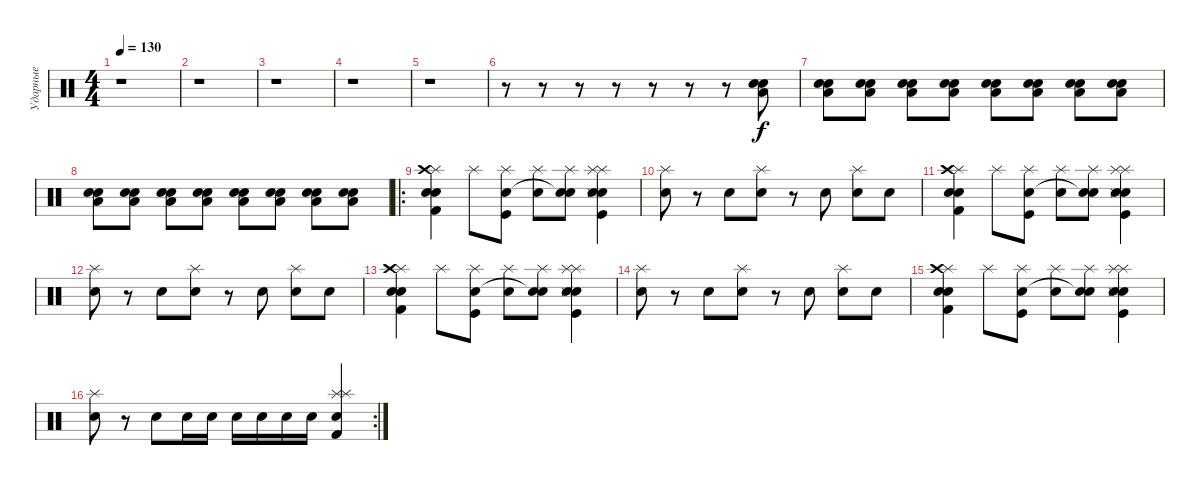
\track ("Ударные" "Ударные") {instrument percussion}
\staff {score}
\articulation defaults
\ts (4 4)
\tempo 130
\clef neutral
\ks c
r.1{dy f} |
r.1 |
r.1 |
r.1 |
r.1 |
r.8 r.8 r.8 r.8 r.8 r.8 r.8 ("Low Tom (hit)" "Electric Snare (hit)" "Snare (hit) 2").8{volume 8} |
("Low Tom (hit)" "Electric Snare (hit)" "Snare (hit) 2").8 ("Low Tom (hit)" "Electric Snare (hit)" "Snare (hit) 2").8 ("Low Tom (hit)" "Electric Snare (hit)" "Snare (hit) 2").8 ("Low Tom (hit)" "Electric Snare (hit)" "Snare (hit) 2").8 ("Low Tom (hit)" "Electric Snare (hit)" "Snare (hit) 2").8{volume 11} ("Low Tom (hit)" "Electric Snare (hit)" "Snare (hit) 2").8 ("Low Tom (hit)" "Electric Snare (hit)" "Snare (hit) 2").8 ("Low Tom (hit)" "Electric Snare (hit)" "Snare (hit) 2").8 |
("Low Tom (hit)" "Electric Snare (hit)" "Snare (hit) 2").8{volume 13} ("Low Tom (hit)" "Electric Snare (hit)" "Snare (hit) 2").8 ("Low Tom (hit)" "Electric Snare (hit)" "Snare (hit) 2").8 ("Low Tom (hit)" "Electric Snare (hit)" "Snare (hit) 2").8 ("Low Tom (hit)" "Electric Snare (hit)" "Snare (hit) 2").8 ("Low Tom (hit)" "Electric Snare (hit)" "Snare (hit) 2").8 ("Low Tom (hit)" "Electric Snare (hit)" "Snare (hit) 2").8 ("Low Tom (hit)" "Electric Snare (hit)" "Snare (hit) 2").8 |
\ro
("Electric Snare (hit)" "Splash (hit)" "Kick (hit) 2" "Snare (hit) 2" "Crash high (hit)").4{volume 8} "Splash (hit)".8 ("Kick (hit)" "Splash (hit)" "Electric Snare (hit)").8 ("Splash (hit)" "Electric Snare (hit)").8 ("Splash (hit)" "Electric Snare (hit)" "Snare (hit)"{t}).8 ("Kick (hit)" "Splash (hit)" "Electric Snare (hit)" "Metronome (bell)" "Snare (side stick) 3" "Splash (hit)").4 |
("Splash (hit)" "Electric Snare (hit)").8 r.8 "Electric Snare (hit)".8 ("Splash (hit)" "Electric Snare (hit)").8 r.8 "Electric Snare (hit)".8 ("Splash (hit)" "Electric Snare (hit)").8 "Electric Snare (hit)".8 |
("Electric Snare (hit)" "Splash (hit)" "Kick (hit) 2" "Snare (hit) 2" "Crash high (hit)").4 "Splash (hit)".8 ("Kick (hit)" "Splash (hit)" "Electric Snare (hit)").8 ("Splash (hit)" "Electric Snare (hit)").8 ("Splash (hit)" "Electric Snare (hit)" "Snare (hit)"{t}).8 ("Kick (hit)" "Splash (hit)" "Electric Snare (hit)" "Metronome (bell)" "Snare (side stick) 3" "Splash (hit)").4 |
("Splash (hit)" "Electric Snare (hit)").8 r.8 "Electric Snare (hit)".8 ("Splash (hit)" "Electric Snare (hit)").8 r.8 "Electric Snare (hit)".8 ("Splash (hit)" "Electric Snare (hit)").8 "Electric Snare (hit)".8 |
("Electric Snare (hit)" "Splash (hit)" "Kick (hit) 2" "Snare (hit) 2" "Crash high (hit)").4 "Splash (hit)".8 ("Kick (hit)" "Splash (hit)" "Electric Snare (hit)").8 ("Splash (hit)" "Electric Snare (hit)").8 ("Splash (hit)" "Electric Snare (hit)" "Snare (hit)"{t}).8 ("Kick (hit)" "Splash (hit)" "Electric Snare (hit)" "Metronome (bell)" "Snare (side stick) 3" "Splash (hit)").4 |
("Splash (hit)" "Electric Snare (hit)").8 r.8 "Electric Snare (hit)".8 ("Splash (hit)" "Electric Snare (hit)").8 r.8 "Electric Snare (hit)".8 ("Splash (hit)" "Electric Snare (hit)").8 "Electric Snare (hit)".8 |
("Electric Snare (hit)" "Splash (hit)" "Kick (hit) 2" "Snare (hit) 2" "Crash high (hit)").4 "Splash (hit)".8 ("Kick (hit)" "Splash (hit)" "Electric Snare (hit)").8 ("Splash (hit)" "Electric Snare (hit)").8 ("Splash (hit)" "Electric Snare (hit)" "Snare (hit)"{t}).8 ("Kick (hit)" "Splash (hit)" "Electric Snare (hit)" "Metronome (bell)" "Snare (side stick) 3" "Splash (hit)").4 |
\rc 2
("Splash (hit)" "Electric Snare (hit)").8 r.8 "Electric Snare (hit)".8 "Electric Snare (hit)".16 "Electric Snare (hit)".16 "Electric Snare (hit)".16 "Electric Snare (hit)".16 "Electric Snare (hit)".16 "Electric Snare (hit)".16 ("Splash (hit)" "Electric Snare (hit)" "Splash (hit)" "Kick (hit) 2").4
